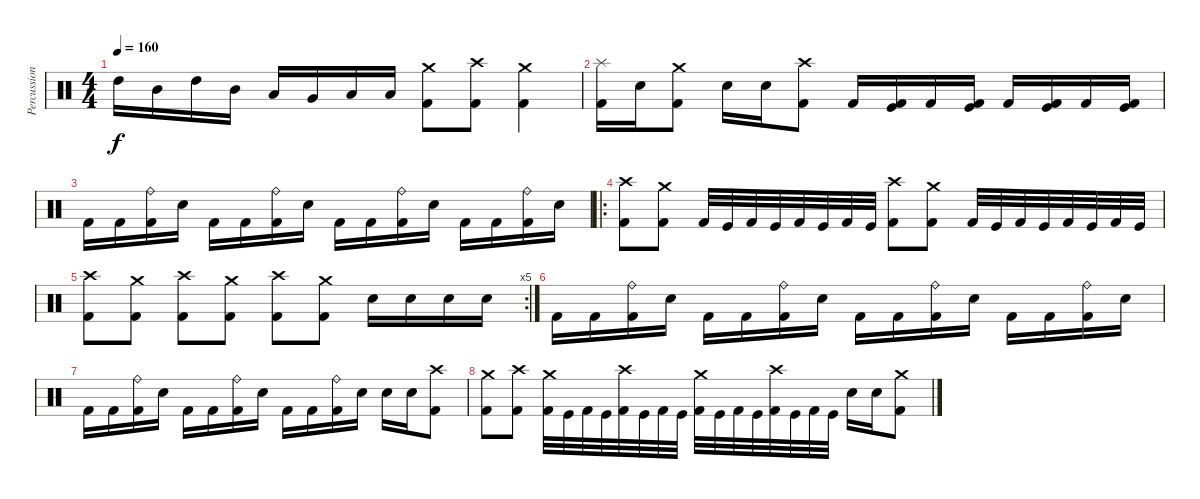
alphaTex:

\track ("Percussion" "Percussion") {instrument percussion}
\staff {score}
\articulation defaults
\ts (4 4)
\tempo 160
\clef neutral
\ks c "High Tom (hit)".16{dy f} "Mid Tom (hit)".16 "High Tom (hit)".16 "Mid Tom (hit)".16 "Low Tom (hit)".16 "Very Low Tom (hit)".16 "Low Floor Tom (hit)".16 "Low Floor Tom (hit)".16
("Crash medium (hit)" "Kick (hit) 2").8 ("Crash high (hit)" "Kick (hit) 2").8 ("Crash medium (hit)" "Kick (hit) 2").4 |
("Splash (hit)" "Kick (hit) 2").16 "Electric Snare (hit)".16 ("Crash medium (hit)" "Kick (hit) 2").8 "Electric Snare (hit)".16 "Electric Snare (hit)".16 ("Crash high (hit)" "Kick (hit) 2").8 "Kick (hit) 2".16 ("Kick (hit)" "Kick (hit) 2").16 "Kick (hit) 2".16 ("Kick (hit)" "Kick (hit) 2").16 "Kick (hit) 2".16 ("Kick (hit)" "Kick (hit) 2").16 "Kick (hit) 2".16 ("Kick (hit)" "Kick (hit) 2").16 |
"Kick (hit) 2".16 "Kick (hit) 2".16 ("Ride (bell)" "Kick (hit) 2").16 "Electric Snare (hit)".16 "Kick (hit) 2".16 "Kick (hit) 2".16 ("Ride (bell)" "Kick (hit) 2").16 "Electric Snare (hit)".16 "Kick (hit) 2".16 "Kick (hit) 2".16 ("Ride (bell)" "Kick (hit) 2").16 "Electric Snare (hit)".16 "Kick (hit) 2".16 "Kick (hit) 2".16 ("Ride (bell)" "Kick (hit) 2").16 "Electric Snare (hit)".16 |
\ro
("Crash high (hit)" "Kick (hit) 2").8 ("Crash medium (hit)" "Kick (hit) 2").8 "Kick (hit) 2".32 "Kick (hit)".32 "Kick (hit) 2".32 "Kick (hit)".32 "Kick (hit) 2".32 "Kick (hit)".32 "Kick (hit) 2".32 "Kick (hit)".32 ("Crash high (hit)" "Kick (hit) 2").8 ("Crash medium (hit)" "Kick (hit) 2").8 "Kick (hit) 2".32 "Kick (hit)".32 "Kick (hit) 2".32 "Kick (hit)".32 "Kick (hit) 2".32 "Kick (hit)".32 "Kick (hit) 2".32 "Kick (hit)".32 |
\rc 5
("Crash high (hit)" "Kick (hit) 2").8 ("Crash medium (hit)" "Kick (hit) 2").8 ("Crash high (hit)" "Kick (hit) 2").8 ("Crash medium (hit)" "Kick (hit) 2").8 ("Crash high (hit)" "Kick (hit) 2").8 ("Crash medium (hit)" "Kick (hit) 2").8 "Electric Snare (hit)".16 "Electric Snare (hit)".16 "Electric Snare (hit)".16 "Electric Snare (hit)".16 |
"Kick (hit) 2".16 "Kick (hit) 2".16 ("Ride (bell)" "Kick (hit) 2").16 "Electric Snare (hit)".16 "Kick (hit) 2".16 "Kick (hit) 2".16 ("Ride (bell)" "Kick (hit) 2").16 "Electric Snare (hit)".16 "Kick (hit) 2".16 "Kick (hit) 2".16 ("Ride (bell)" "Kick (hit) 2").16 "Electric Snare (hit)".16 "Kick (hit) 2".16 "Kick (hit) 2".16 ("Ride (bell)" "Kick (hit) 2").16 "Electric Snare (hit)".16 |
"Kick (hit) 2".16 "Kick (hit) 2".16 ("Ride (bell)" "Kick (hit) 2").16 "Electric Snare (hit)".16 "Kick (hit) 2".16 "Kick (hit) 2".16 ("Ride (bell)" "Kick (hit) 2").16 "Electric Snare (hit)".16 "Kick (hit) 2".16 "Kick (hit) 2".16 ("Ride (bell)" "Kick (hit) 2").16 "Electric Snare (hit)".16 "Electric Snare (hit)".16 "Electric Snare (hit)".16 ("Crash high (hit)" "Kick (hit) 2").8 |
("Crash medium (hit)" "Kick (hit) 2").8 ("Crash high (hit)" "Kick (hit) 2").8 ("Crash medium (hit)" "Kick (hit) 2").32 "Kick (hit)".32 "Kick (hit) 2".32 "Kick (hit)".32 ("Crash high (hit)" "Kick (hit) 2").32 "Kick (hit)".32 "Kick (hit) 2".32 "Kick (hit)".32 ("Crash medium (hit)" "Kick (hit) 2").32 "Kick (hit)".32 "Kick (hit) 2".32 "Kick (hit)".32 ("Crash high (hit)" "Kick (hit) 2").32 "Kick (hit)".32 "Kick (hit) 2".32 "Kick (hit)".32 "Electric Snare (hit)".16 "Electric Snare (hit)".16 ("Crash medium (hit)" "Kick (hit) 2").8
